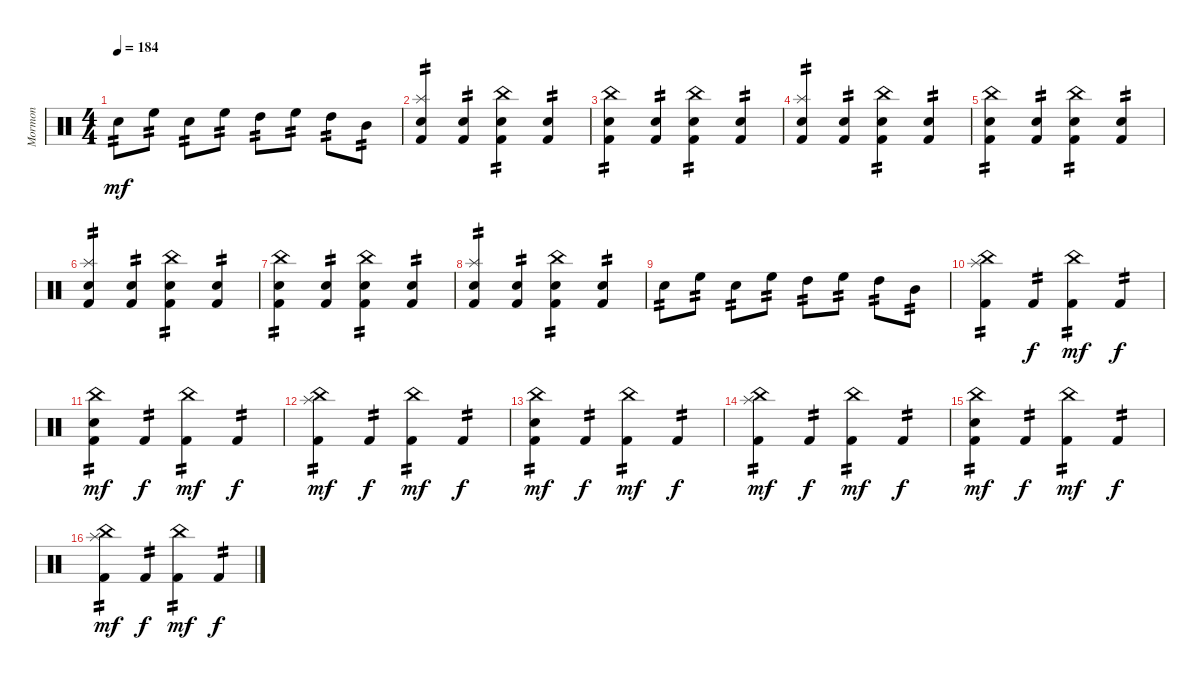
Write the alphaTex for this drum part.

\track ("Mormon" "Mormon") {solo instrument percussion}
\staff {score}
\articulation defaults
\ts (4 4)
\tempo 184
\clef neutral
\ks c "Snare (hit) 2".8{tp 2 dy mf} "High Floor Tom (hit)".8{tp 2} "Snare (hit) 2".8{tp 2} "High Floor Tom (hit)".8{tp 2} "High Tom (hit)".8{tp 2} "High Floor Tom (hit)".8{tp 2} "High Tom (hit)".8{tp 2} "Mid Tom (hit)".8{tp 2}
|
("Splash (hit)" "Snare (hit) 2" "Kick (hit) 2").4{tp 2} ("Snare (hit) 2" "Kick (hit) 2").4{tp 2} ("China (hit)" "Snare (hit) 2" "Kick (hit) 2").4{tp 2} ("Snare (hit) 2" "Kick (hit) 2").4{tp 2} |
("China (hit)" "Snare (hit) 2" "Kick (hit) 2").4{tp 2} ("Snare (hit) 2" "Kick (hit) 2").4{tp 2} ("China (hit)" "Snare (hit) 2" "Kick (hit) 2").4{tp 2} ("Snare (hit) 2" "Kick (hit) 2").4{tp 2} |
("Splash (hit)" "Snare (hit) 2" "Kick (hit) 2").4{tp 2} ("Snare (hit) 2" "Kick (hit) 2").4{tp 2} ("China (hit)" "Snare (hit) 2" "Kick (hit) 2").4{tp 2} ("Snare (hit) 2" "Kick (hit) 2").4{tp 2} |
("China (hit)" "Snare (hit) 2" "Kick (hit) 2").4{tp 2} ("Snare (hit) 2" "Kick (hit) 2").4{tp 2} ("China (hit)" "Snare (hit) 2" "Kick (hit) 2").4{tp 2} ("Snare (hit) 2" "Kick (hit) 2").4{tp 2} |
("Splash (hit)" "Snare (hit) 2" "Kick (hit) 2").4{tp 2} ("Snare (hit) 2" "Kick (hit) 2").4{tp 2} ("China (hit)" "Snare (hit) 2" "Kick (hit) 2").4{tp 2} ("Snare (hit) 2" "Kick (hit) 2").4{tp 2} |
("China (hit)" "Snare (hit) 2" "Kick (hit) 2").4{tp 2} ("Snare (hit) 2" "Kick (hit) 2").4{tp 2} ("China (hit)" "Snare (hit) 2" "Kick (hit) 2").4{tp 2} ("Snare (hit) 2" "Kick (hit) 2").4{tp 2} |
("Splash (hit)" "Snare (hit) 2" "Kick (hit) 2").4{tp 2} ("Snare (hit) 2" "Kick (hit) 2").4{tp 2} ("China (hit)" "Snare (hit) 2" "Kick (hit) 2").4{tp 2} ("Snare (hit) 2" "Kick (hit) 2").4{tp 2} |
"Snare (hit) 2".8{tp 2} "High Floor Tom (hit)".8{tp 2} "Snare (hit) 2".8{tp 2} "High Floor Tom (hit)".8{tp 2} "High Tom (hit)".8{tp 2} "High Floor Tom (hit)".8{tp 2} "High Tom (hit)".8{tp 2} "Mid Tom (hit)".8{tp 2} |
("China (hit)" "Splash (hit)" "Kick (hit) 2").4{tp 2} "Kick (hit) 2".4{tp 2 dy f} ("China (hit)" "Kick (hit) 2").4{tp 2 dy mf} "Kick (hit) 2".4{tp 2 dy f} |
("China (hit)" "Snare (hit) 2" "Kick (hit) 2").4{tp 2 dy mf} "Kick (hit) 2".4{tp 2 dy f} ("China (hit)" "Kick (hit) 2").4{tp 2 dy mf} "Kick (hit) 2".4{tp 2 dy f} |
("China (hit)" "Splash (hit)" "Kick (hit) 2").4{tp 2 dy mf} "Kick (hit) 2".4{tp 2 dy f} ("China (hit)" "Kick (hit) 2").4{tp 2 dy mf} "Kick (hit) 2".4{tp 2 dy f} |
("China (hit)" "Snare (hit) 2" "Kick (hit) 2").4{tp 2 dy mf} "Kick (hit) 2".4{tp 2 dy f} ("China (hit)" "Kick (hit) 2").4{tp 2 dy mf} "Kick (hit) 2".4{tp 2 dy f} |
("China (hit)" "Splash (hit)" "Kick (hit) 2").4{tp 2 dy mf} "Kick (hit) 2".4{tp 2 dy f} ("China (hit)" "Kick (hit) 2").4{tp 2 dy mf} "Kick (hit) 2".4{tp 2 dy f} |
("China (hit)" "Snare (hit) 2" "Kick (hit) 2").4{tp 2 dy mf} "Kick (hit) 2".4{tp 2 dy f} ("China (hit)" "Kick (hit) 2").4{tp 2 dy mf} "Kick (hit) 2".4{tp 2 dy f} |
("China (hit)" "Splash (hit)" "Kick (hit) 2").4{tp 2 dy mf} "Kick (hit) 2".4{tp 2 dy f} ("China (hit)" "Kick (hit) 2").4{tp 2 dy mf} "Kick (hit) 2".4{tp 2 dy f}
